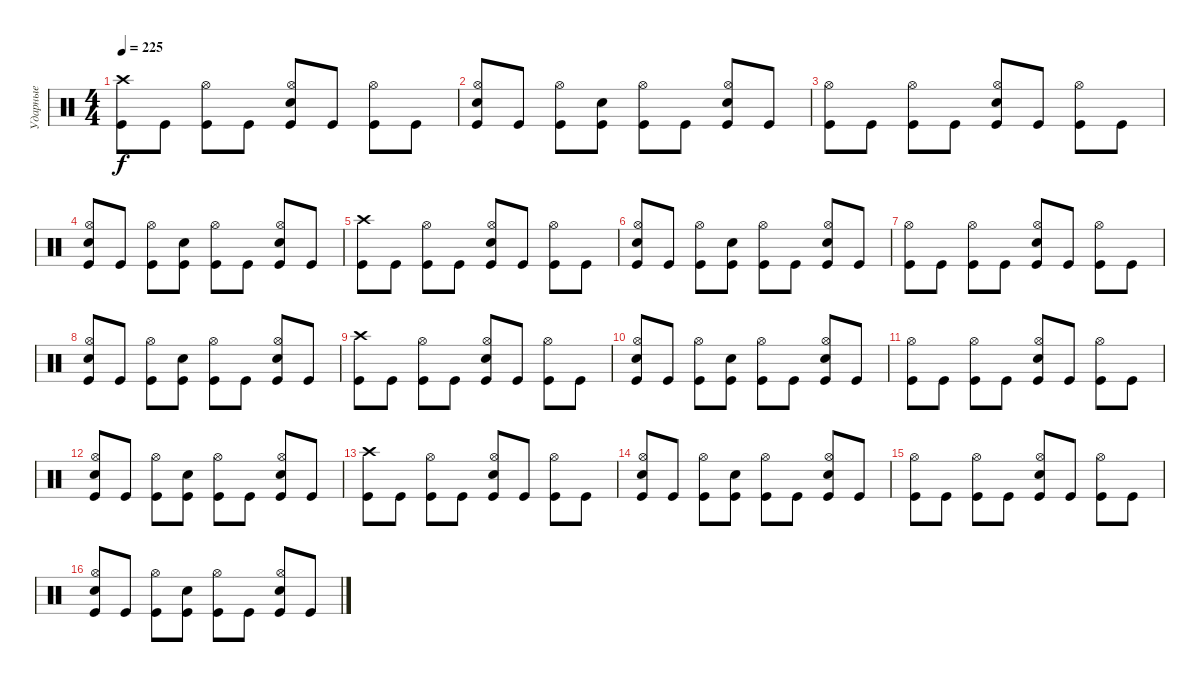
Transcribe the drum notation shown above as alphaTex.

\track ("Ударные" "Ударные") {instrument percussion}
\staff {score}
\articulation defaults
\ts (4 4)
\tempo 225
\clef neutral
\ks c
("Crash high (hit)" "Kick (hit)").8{dy f} "Kick (hit)".8 ("Hi-Hat (open)" "Kick (hit)").8 "Kick (hit)".8 ("Hi-Hat (open)" "Snare (hit) 2" "Kick (hit)").8 "Kick (hit)".8 ("Hi-Hat (open)" "Kick (hit)").8 "Kick (hit)".8 |
("Hi-Hat (open)" "Snare (hit) 2" "Kick (hit)").8 "Kick (hit)".8 ("Hi-Hat (open)" "Kick (hit)").8 ("Snare (hit) 2" "Kick (hit)").8 ("Hi-Hat (open)" "Kick (hit)").8 "Kick (hit)".8 ("Hi-Hat (open)" "Snare (hit) 2" "Kick (hit)").8 "Kick (hit)".8 |
("Hi-Hat (open)" "Kick (hit)").8 "Kick (hit)".8 ("Hi-Hat (open)" "Kick (hit)").8 "Kick (hit)".8 ("Hi-Hat (open)" "Snare (hit) 2" "Kick (hit)").8 "Kick (hit)".8 ("Hi-Hat (open)" "Kick (hit)").8 "Kick (hit)".8 |
("Hi-Hat (open)" "Snare (hit) 2" "Kick (hit)").8 "Kick (hit)".8 ("Hi-Hat (open)" "Kick (hit)").8 ("Snare (hit) 2" "Kick (hit)").8 ("Hi-Hat (open)" "Kick (hit)").8 "Kick (hit)".8 ("Hi-Hat (open)" "Snare (hit) 2" "Kick (hit)").8 "Kick (hit)".8 |
("Crash high (hit)" "Kick (hit)").8 "Kick (hit)".8 ("Hi-Hat (open)" "Kick (hit)").8 "Kick (hit)".8 ("Hi-Hat (open)" "Snare (hit) 2" "Kick (hit)").8 "Kick (hit)".8 ("Hi-Hat (open)" "Kick (hit)").8 "Kick (hit)".8 |
("Hi-Hat (open)" "Snare (hit) 2" "Kick (hit)").8 "Kick (hit)".8 ("Hi-Hat (open)" "Kick (hit)").8 ("Snare (hit) 2" "Kick (hit)").8 ("Hi-Hat (open)" "Kick (hit)").8 "Kick (hit)".8 ("Hi-Hat (open)" "Snare (hit) 2" "Kick (hit)").8 "Kick (hit)".8 |
("Hi-Hat (open)" "Kick (hit)").8 "Kick (hit)".8 ("Hi-Hat (open)" "Kick (hit)").8 "Kick (hit)".8 ("Hi-Hat (open)" "Snare (hit) 2" "Kick (hit)").8 "Kick (hit)".8 ("Hi-Hat (open)" "Kick (hit)").8 "Kick (hit)".8 |
("Hi-Hat (open)" "Snare (hit) 2" "Kick (hit)").8 "Kick (hit)".8 ("Hi-Hat (open)" "Kick (hit)").8 ("Snare (hit) 2" "Kick (hit)").8 ("Hi-Hat (open)" "Kick (hit)").8 "Kick (hit)".8 ("Hi-Hat (open)" "Snare (hit) 2" "Kick (hit)").8 "Kick (hit)".8 |
("Crash high (hit)" "Kick (hit)").8 "Kick (hit)".8 ("Hi-Hat (open)" "Kick (hit)").8 "Kick (hit)".8 ("Hi-Hat (open)" "Snare (hit) 2" "Kick (hit)").8 "Kick (hit)".8 ("Hi-Hat (open)" "Kick (hit)").8 "Kick (hit)".8 |
("Hi-Hat (open)" "Snare (hit) 2" "Kick (hit)").8 "Kick (hit)".8 ("Hi-Hat (open)" "Kick (hit)").8 ("Snare (hit) 2" "Kick (hit)").8 ("Hi-Hat (open)" "Kick (hit)").8 "Kick (hit)".8 ("Hi-Hat (open)" "Snare (hit) 2" "Kick (hit)").8 "Kick (hit)".8 |
("Hi-Hat (open)" "Kick (hit)").8 "Kick (hit)".8 ("Hi-Hat (open)" "Kick (hit)").8 "Kick (hit)".8 ("Hi-Hat (open)" "Snare (hit) 2" "Kick (hit)").8 "Kick (hit)".8 ("Hi-Hat (open)" "Kick (hit)").8 "Kick (hit)".8 |
("Hi-Hat (open)" "Snare (hit) 2" "Kick (hit)").8 "Kick (hit)".8 ("Hi-Hat (open)" "Kick (hit)").8 ("Snare (hit) 2" "Kick (hit)").8 ("Hi-Hat (open)" "Kick (hit)").8 "Kick (hit)".8 ("Hi-Hat (open)" "Snare (hit) 2" "Kick (hit)").8 "Kick (hit)".8 |
("Crash high (hit)" "Kick (hit)").8 "Kick (hit)".8 ("Hi-Hat (open)" "Kick (hit)").8 "Kick (hit)".8 ("Hi-Hat (open)" "Snare (hit) 2" "Kick (hit)").8 "Kick (hit)".8 ("Hi-Hat (open)" "Kick (hit)").8 "Kick (hit)".8 |
("Hi-Hat (open)" "Snare (hit) 2" "Kick (hit)").8 "Kick (hit)".8 ("Hi-Hat (open)" "Kick (hit)").8 ("Snare (hit) 2" "Kick (hit)").8 ("Hi-Hat (open)" "Kick (hit)").8 "Kick (hit)".8 ("Hi-Hat (open)" "Snare (hit) 2" "Kick (hit)").8 "Kick (hit)".8 |
("Hi-Hat (open)" "Kick (hit)").8 "Kick (hit)".8 ("Hi-Hat (open)" "Kick (hit)").8 "Kick (hit)".8 ("Hi-Hat (open)" "Snare (hit) 2" "Kick (hit)").8 "Kick (hit)".8 ("Hi-Hat (open)" "Kick (hit)").8 "Kick (hit)".8 |
("Hi-Hat (open)" "Snare (hit) 2" "Kick (hit)").8 "Kick (hit)".8 ("Hi-Hat (open)" "Kick (hit)").8 ("Snare (hit) 2" "Kick (hit)").8 ("Hi-Hat (open)" "Kick (hit)").8 "Kick (hit)".8 ("Hi-Hat (open)" "Snare (hit) 2" "Kick (hit)").8 "Kick (hit)".8
